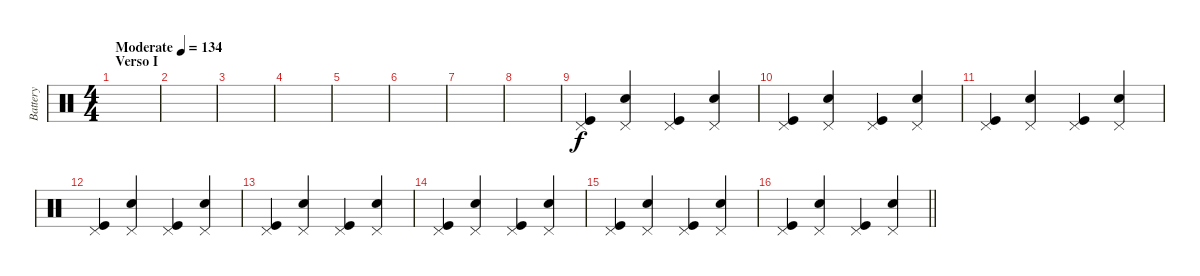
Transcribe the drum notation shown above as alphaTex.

\track ("Battery" "Battery") {instrument percussion}
\staff {score}
\articulation defaults
\ts (4 4)
\section ("" "Verso I")
\tempo (134 "Moderate")
\clef neutral
\ks c
|
|
|
|
|
|
|
|
("Pedal Hi-Hat (hit)" "Kick (hit)").4 ("Pedal Hi-Hat (hit)" "Snare (hit) 2").4 ("Pedal Hi-Hat (hit)" "Kick (hit)").4 ("Pedal Hi-Hat (hit)" "Snare (hit) 2").4 |
("Pedal Hi-Hat (hit)" "Kick (hit)").4 ("Pedal Hi-Hat (hit)" "Snare (hit) 2").4 ("Pedal Hi-Hat (hit)" "Kick (hit)").4 ("Pedal Hi-Hat (hit)" "Snare (hit) 2").4 |
("Pedal Hi-Hat (hit)" "Kick (hit)").4 ("Pedal Hi-Hat (hit)" "Snare (hit) 2").4 ("Pedal Hi-Hat (hit)" "Kick (hit)").4 ("Pedal Hi-Hat (hit)" "Snare (hit) 2").4 |
("Pedal Hi-Hat (hit)" "Kick (hit)").4 ("Pedal Hi-Hat (hit)" "Snare (hit) 2").4 ("Pedal Hi-Hat (hit)" "Kick (hit)").4 ("Pedal Hi-Hat (hit)" "Snare (hit) 2").4 |
("Pedal Hi-Hat (hit)" "Kick (hit)").4 ("Pedal Hi-Hat (hit)" "Snare (hit) 2").4 ("Pedal Hi-Hat (hit)" "Kick (hit)").4 ("Pedal Hi-Hat (hit)" "Snare (hit) 2").4 |
("Pedal Hi-Hat (hit)" "Kick (hit)").4 ("Pedal Hi-Hat (hit)" "Snare (hit) 2").4 ("Pedal Hi-Hat (hit)" "Kick (hit)").4 ("Pedal Hi-Hat (hit)" "Snare (hit) 2").4 |
("Pedal Hi-Hat (hit)" "Kick (hit)").4 ("Pedal Hi-Hat (hit)" "Snare (hit) 2").4 ("Pedal Hi-Hat (hit)" "Kick (hit)").4 ("Pedal Hi-Hat (hit)" "Snare (hit) 2").4 |
\barLineRight lightlight
("Pedal Hi-Hat (hit)" "Kick (hit)").4 ("Pedal Hi-Hat (hit)" "Snare (hit) 2").4 ("Pedal Hi-Hat (hit)" "Kick (hit)").4 ("Pedal Hi-Hat (hit)" "Snare (hit) 2").4
